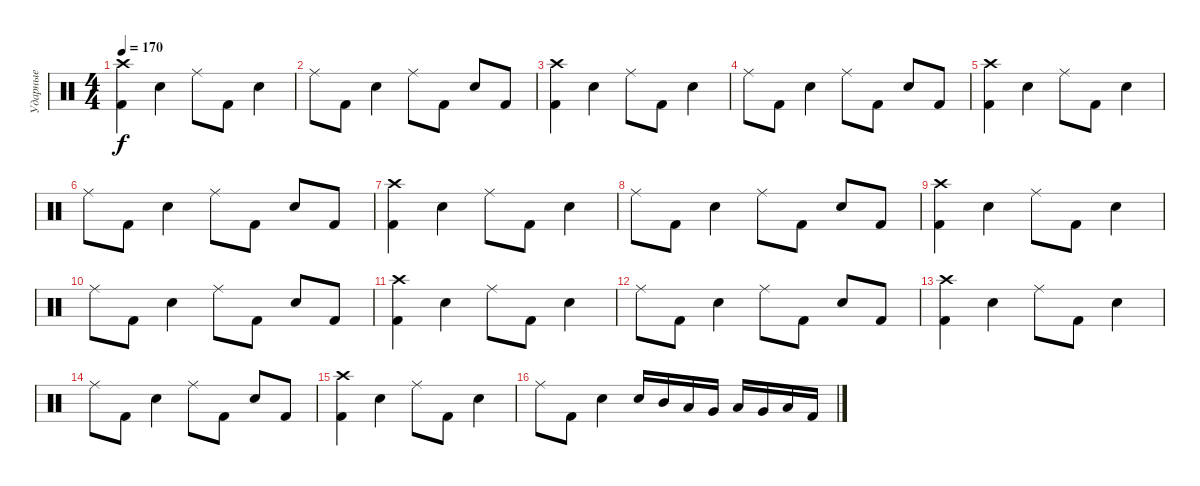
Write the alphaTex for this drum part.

\track ("Ударные" "Ударные") {instrument percussion}
\staff {score}
\articulation defaults
\ts (4 4)
\tempo 170
\clef neutral
\ks c
("Crash high (hit)" "Kick (hit) 2").4{dy f} "Electric Snare (hit)".4 "Ride (middle)".8 "Kick (hit) 2".8 "Electric Snare (hit)".4 |
"Ride (middle)".8 "Kick (hit) 2".8 "Electric Snare (hit)".4 "Ride (middle)".8 "Kick (hit) 2".8 "Electric Snare (hit)".8 "Kick (hit) 2".8 |
("Crash high (hit)" "Kick (hit) 2").4 "Electric Snare (hit)".4 "Ride (middle)".8 "Kick (hit) 2".8 "Electric Snare (hit)".4 |
"Ride (middle)".8 "Kick (hit) 2".8 "Electric Snare (hit)".4 "Ride (middle)".8 "Kick (hit) 2".8 "Electric Snare (hit)".8 "Kick (hit) 2".8 |
("Crash high (hit)" "Kick (hit) 2").4 "Electric Snare (hit)".4 "Ride (middle)".8 "Kick (hit) 2".8 "Electric Snare (hit)".4 |
"Ride (middle)".8 "Kick (hit) 2".8 "Electric Snare (hit)".4 "Ride (middle)".8 "Kick (hit) 2".8 "Electric Snare (hit)".8 "Kick (hit) 2".8 |
("Crash high (hit)" "Kick (hit) 2").4 "Electric Snare (hit)".4 "Ride (middle)".8 "Kick (hit) 2".8 "Electric Snare (hit)".4 |
"Ride (middle)".8 "Kick (hit) 2".8 "Electric Snare (hit)".4 "Ride (middle)".8 "Kick (hit) 2".8 "Electric Snare (hit)".8 "Kick (hit) 2".8 |
("Crash high (hit)" "Kick (hit) 2").4 "Electric Snare (hit)".4 "Ride (middle)".8 "Kick (hit) 2".8 "Electric Snare (hit)".4 |
"Ride (middle)".8 "Kick (hit) 2".8 "Electric Snare (hit)".4 "Ride (middle)".8 "Kick (hit) 2".8 "Electric Snare (hit)".8 "Kick (hit) 2".8 |
("Crash high (hit)" "Kick (hit) 2").4 "Electric Snare (hit)".4 "Ride (middle)".8 "Kick (hit) 2".8 "Electric Snare (hit)".4 |
"Ride (middle)".8 "Kick (hit) 2".8 "Electric Snare (hit)".4 "Ride (middle)".8 "Kick (hit) 2".8 "Electric Snare (hit)".8 "Kick (hit) 2".8 |
("Crash high (hit)" "Kick (hit) 2").4 "Electric Snare (hit)".4 "Ride (middle)".8 "Kick (hit) 2".8 "Electric Snare (hit)".4 |
"Ride (middle)".8 "Kick (hit) 2".8 "Electric Snare (hit)".4 "Ride (middle)".8 "Kick (hit) 2".8 "Electric Snare (hit)".8 "Kick (hit) 2".8 |
("Crash high (hit)" "Kick (hit) 2").4 "Electric Snare (hit)".4 "Ride (middle)".8 "Kick (hit) 2".8 "Electric Snare (hit)".4 |
"Ride (middle)".8 "Kick (hit) 2".8 "Electric Snare (hit)".4 "Electric Snare (hit)".16 "Mid Tom (hit)".16 "Low Tom (hit)".16 "Very Low Tom (hit)".16 "Low Tom (hit)".16 "Very Low Tom (hit)".16 "Low Floor Tom (hit)".16 "Kick (hit) 2".16
